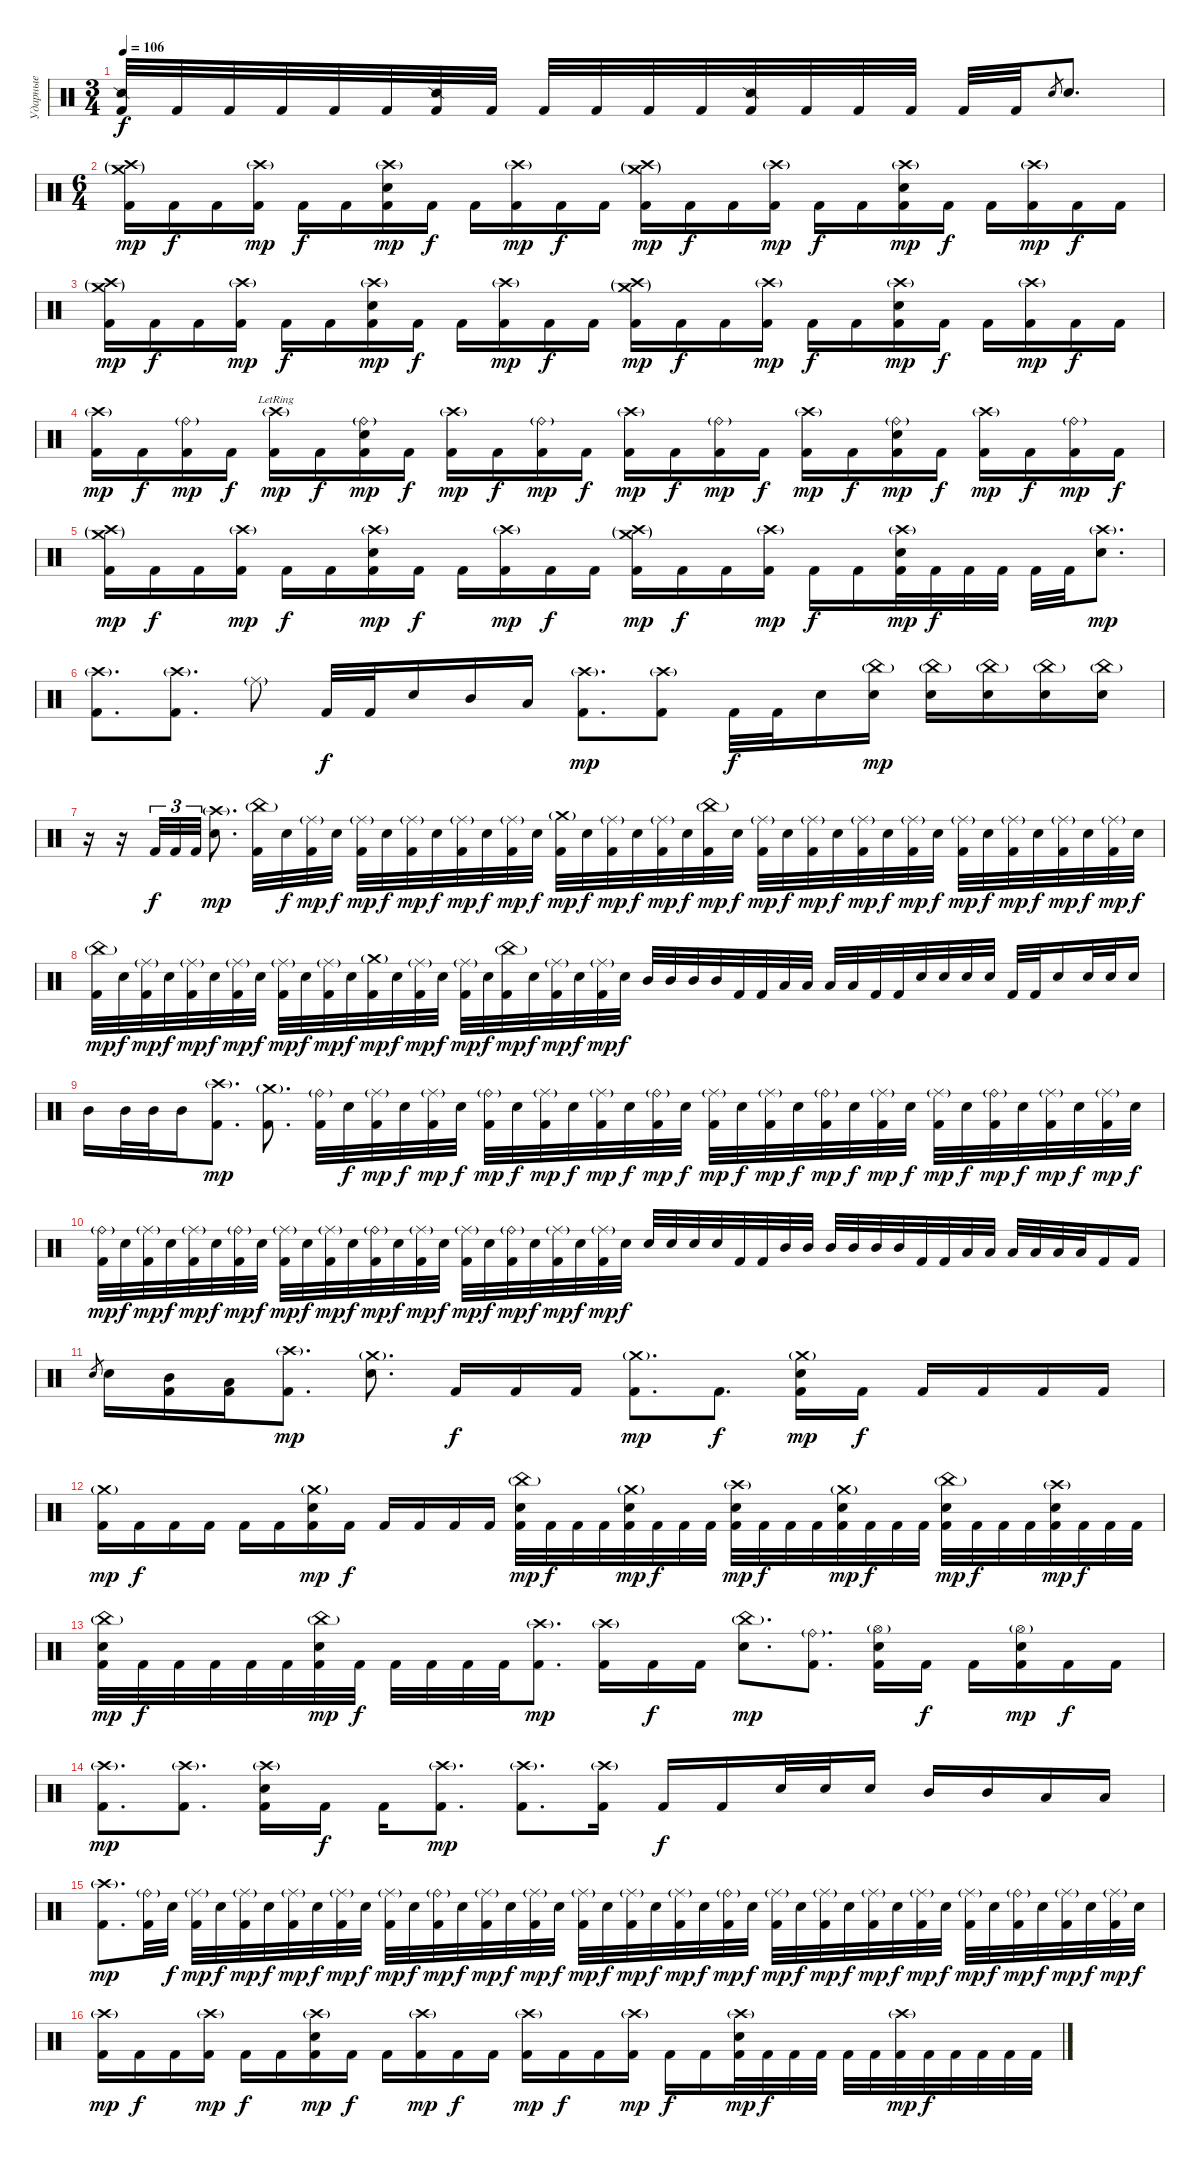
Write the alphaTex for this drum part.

\track ("Ударные" "Ударные") {instrument percussion}
\staff {score}
\articulation defaults
\ts (3 4)
\tempo 106
\clef neutral
\ks c
("Snare (side stick) 2" "Kick (hit) 2").32{dy f} "Kick (hit) 2".32 "Kick (hit) 2".32 "Kick (hit) 2".32 "Kick (hit) 2".32 "Kick (hit) 2".32 ("Snare (side stick) 2" "Kick (hit) 2").32 "Kick (hit) 2".32 "Kick (hit) 2".32 "Kick (hit) 2".32 "Kick (hit) 2".32 "Kick (hit) 2".32 ("Snare (side stick) 2" "Kick (hit) 2").32 "Kick (hit) 2".32 "Kick (hit) 2".32 "Kick (hit) 2".32 "Kick (hit) 2".32 "Kick (hit) 2".32 "Electric Snare (hit)".8{gr} "Electric Snare (hit)".8{d} |
\ts (6 4)
("Crash high (hit)"{g} "Crash medium (hit)"{g} "Kick (hit) 2").16{dy mp} "Kick (hit) 2".16{dy f} "Kick (hit) 2".16 ("Crash high (hit)"{g} "Kick (hit) 2").16{dy mp} "Kick (hit) 2".16{dy f} "Kick (hit) 2".16 ("Crash high (hit)"{g} "Electric Snare (hit)" "Kick (hit) 2").16{dy mp} "Kick (hit) 2".16{dy f} "Kick (hit) 2".16 ("Crash high (hit)"{g} "Kick (hit) 2").16{dy mp} "Kick (hit) 2".16{dy f} "Kick (hit) 2".16 ("Crash high (hit)"{g} "Crash medium (hit)"{g} "Kick (hit) 2").16{dy mp} "Kick (hit) 2".16{dy f} "Kick (hit) 2".16 ("Crash high (hit)"{g} "Kick (hit) 2").16{dy mp} "Kick (hit) 2".16{dy f} "Kick (hit) 2".16 ("Crash high (hit)"{g} "Electric Snare (hit)" "Kick (hit) 2").16{dy mp} "Kick (hit) 2".16{dy f} "Kick (hit) 2".16 ("Crash high (hit)"{g} "Kick (hit) 2").16{dy mp} "Kick (hit) 2".16{dy f} "Kick (hit) 2".16 |
("Crash high (hit)"{g} "Crash medium (hit)"{g} "Kick (hit) 2").16{dy mp} "Kick (hit) 2".16{dy f} "Kick (hit) 2".16 ("Crash high (hit)"{g} "Kick (hit) 2").16{dy mp} "Kick (hit) 2".16{dy f} "Kick (hit) 2".16 ("Crash high (hit)"{g} "Electric Snare (hit)" "Kick (hit) 2").16{dy mp} "Kick (hit) 2".16{dy f} "Kick (hit) 2".16 ("Crash high (hit)"{g} "Kick (hit) 2").16{dy mp} "Kick (hit) 2".16{dy f} "Kick (hit) 2".16 ("Crash high (hit)"{g} "Crash medium (hit)"{g} "Kick (hit) 2").16{dy mp} "Kick (hit) 2".16{dy f} "Kick (hit) 2".16 ("Crash high (hit)"{g} "Kick (hit) 2").16{dy mp} "Kick (hit) 2".16{dy f} "Kick (hit) 2".16 ("Crash high (hit)"{g} "Electric Snare (hit)" "Kick (hit) 2").16{dy mp} "Kick (hit) 2".16{dy f} "Kick (hit) 2".16 ("Crash high (hit)"{g} "Kick (hit) 2").16{dy mp} "Kick (hit) 2".16{dy f} "Kick (hit) 2".16 |
("Crash high (hit)"{g} "Kick (hit) 2").16{dy mp} "Kick (hit) 2".16{dy f} ("Ride (bell)"{g} "Kick (hit) 2").16{dy mp} "Kick (hit) 2".16{dy f} ("Crash high (hit)"{g lr} "Kick (hit) 2").16{dy mp} "Kick (hit) 2".16{dy f} ("Ride (bell)"{g} "Electric Snare (hit)" "Kick (hit) 2").16{dy mp} "Kick (hit) 2".16{dy f} ("Crash high (hit)"{g} "Kick (hit) 2").16{dy mp} "Kick (hit) 2".16{dy f} ("Ride (bell)"{g} "Kick (hit) 2").16{dy mp} "Kick (hit) 2".16{dy f} ("Crash high (hit)"{g} "Kick (hit) 2").16{dy mp} "Kick (hit) 2".16{dy f} ("Ride (bell)"{g} "Kick (hit) 2").16{dy mp} "Kick (hit) 2".16{dy f} ("Crash high (hit)"{g} "Kick (hit) 2").16{dy mp} "Kick (hit) 2".16{dy f} ("Ride (bell)"{g} "Electric Snare (hit)" "Kick (hit) 2").16{dy mp} "Kick (hit) 2".16{dy f} ("Crash high (hit)"{g} "Kick (hit) 2").16{dy mp} "Kick (hit) 2".16{dy f} ("Ride (bell)"{g} "Kick (hit) 2").16{dy mp} "Kick (hit) 2".16{dy f} |
("Crash high (hit)"{g} "Crash medium (hit)"{g} "Kick (hit) 2").16{dy mp} "Kick (hit) 2".16{dy f} "Kick (hit) 2".16 ("Crash high (hit)"{g} "Kick (hit) 2").16{dy mp} "Kick (hit) 2".16{dy f} "Kick (hit) 2".16 ("Crash high (hit)"{g} "Electric Snare (hit)" "Kick (hit) 2").16{dy mp} "Kick (hit) 2".16{dy f} "Kick (hit) 2".16 ("Crash high (hit)"{g} "Kick (hit) 2").16{dy mp} "Kick (hit) 2".16{dy f} "Kick (hit) 2".16 ("Crash high (hit)"{g} "Crash medium (hit)"{g} "Kick (hit) 2").16{dy mp} "Kick (hit) 2".16{dy f} "Kick (hit) 2".16 ("Crash high (hit)"{g} "Kick (hit) 2").16{dy mp} "Kick (hit) 2".16{dy f} "Kick (hit) 2".16 ("Crash high (hit)"{g} "Electric Snare (hit)" "Kick (hit) 2").32{dy mp} "Kick (hit) 2".32{dy f} "Kick (hit) 2".32 "Kick (hit) 2".32 "Kick (hit) 2".32 "Kick (hit) 2".32 ("Crash high (hit)"{g} "Electric Snare (hit)").8{d dy mp} |
("Crash high (hit)"{g} "Kick (hit) 2").8{d} ("Crash high (hit)"{g} "Kick (hit) 2").8{d} "Ride (middle)"{g}.8 "Kick (hit) 2".32{dy f} "Kick (hit) 2".32 "Electric Snare (hit)".16 "Mid Tom (hit)".16 "Low Tom (hit)".16 ("Crash high (hit)"{g} "Kick (hit) 2").8{d dy mp} ("Crash high (hit)"{g} "Kick (hit) 2").8 "Kick (hit) 2".32{dy f} "Kick (hit) 2".32 "Electric Snare (hit)".16 ("China (hit)"{g} "Electric Snare (hit)").16{dy mp} ("China (hit)"{g} "Electric Snare (hit)").16 ("China (hit)"{g} "Electric Snare (hit)").16 ("China (hit)"{g} "Electric Snare (hit)").16 ("China (hit)"{g} "Electric Snare (hit)").16 |
r.16 r.16 "Kick (hit) 2".32{tu (3 2) dy f} "Kick (hit) 2".32{tu (3 2)} "Kick (hit) 2".32{tu (3 2)} ("Crash high (hit)"{g} "Electric Snare (hit)").8{d dy mp} ("China (hit)"{g} "Kick (hit) 2").32 "Electric Snare (hit)".32{dy f} ("Ride (middle)"{g} "Kick (hit) 2").32{dy mp} "Electric Snare (hit)".32{dy f} ("Ride (middle)"{g} "Kick (hit) 2").32{dy mp} "Electric Snare (hit)".32{dy f} ("Ride (middle)"{g} "Kick (hit) 2").32{dy mp} "Electric Snare (hit)".32{dy f} ("Ride (middle)"{g} "Kick (hit) 2").32{dy mp} "Electric Snare (hit)".32{dy f} ("Ride (middle)"{g} "Kick (hit) 2").32{dy mp} "Electric Snare (hit)".32{dy f} ("Crash medium (hit)"{g} "Kick (hit) 2").32{dy mp} "Electric Snare (hit)".32{dy f} ("Ride (middle)"{g} "Kick (hit) 2").32{dy mp} "Electric Snare (hit)".32{dy f} ("Ride (middle)"{g} "Kick (hit) 2").32{dy mp} "Electric Snare (hit)".32{dy f} ("China (hit)"{g} "Kick (hit) 2").32{dy mp} "Electric Snare (hit)".32{dy f} ("Ride (middle)"{g} "Kick (hit) 2").32{dy mp} "Electric Snare (hit)".32{dy f} ("Ride (middle)"{g} "Kick (hit) 2").32{dy mp} "Electric Snare (hit)".32{dy f} ("Ride (middle)"{g} "Kick (hit) 2").32{dy mp} "Electric Snare (hit)".32{dy f} ("Ride (middle)"{g} "Kick (hit) 2").32{dy mp} "Electric Snare (hit)".32{dy f} ("Ride (middle)"{g} "Kick (hit) 2").32{dy mp} "Electric Snare (hit)".32{dy f} ("Ride (middle)"{g} "Kick (hit) 2").32{dy mp} "Electric Snare (hit)".32{dy f} ("Ride (middle)"{g} "Kick (hit) 2").32{dy mp} "Electric Snare (hit)".32{dy f} ("Ride (middle)"{g} "Kick (hit) 2").32{dy mp} "Electric Snare (hit)".32{dy f} |
("China (hit)"{g} "Kick (hit) 2").32{dy mp} "Electric Snare (hit)".32{dy f} ("Ride (middle)"{g} "Kick (hit) 2").32{dy mp} "Electric Snare (hit)".32{dy f} ("Ride (middle)"{g} "Kick (hit) 2").32{dy mp} "Electric Snare (hit)".32{dy f} ("Ride (middle)"{g} "Kick (hit) 2").32{dy mp} "Electric Snare (hit)".32{dy f} ("Ride (middle)"{g} "Kick (hit) 2").32{dy mp} "Electric Snare (hit)".32{dy f} ("Ride (middle)"{g} "Kick (hit) 2").32{dy mp} "Electric Snare (hit)".32{dy f} ("Crash medium (hit)"{g} "Kick (hit) 2").32{dy mp} "Electric Snare (hit)".32{dy f} ("Ride (middle)"{g} "Kick (hit) 2").32{dy mp} "Electric Snare (hit)".32{dy f} ("Ride (middle)"{g} "Kick (hit) 2").32{dy mp} "Electric Snare (hit)".32{dy f} ("China (hit)"{g} "Kick (hit) 2").32{dy mp} "Electric Snare (hit)".32{dy f} ("Ride (middle)"{g} "Kick (hit) 2").32{dy mp} "Electric Snare (hit)".32{dy f} ("Ride (middle)"{g} "Kick (hit) 2").32{dy mp} "Electric Snare (hit)".32{dy f} "Mid Tom (hit)".32 "Mid Tom (hit)".32 "Mid Tom (hit)".32 "Mid Tom (hit)".32 "Kick (hit) 2".32 "Kick (hit) 2".32 "Low Tom (hit)".32 "Low Tom (hit)".32 "Low Tom (hit)".32 "Low Tom (hit)".32 "Kick (hit) 2".32 "Kick (hit) 2".32 "Electric Snare (hit)".32 "Electric Snare (hit)".32 "Electric Snare (hit)".32 "Electric Snare (hit)".32 "Kick (hit) 2".32 "Kick (hit) 2".32 "Electric Snare (hit)".16 "Electric Snare (hit)".32 "Electric Snare (hit)".32 "Electric Snare (hit)".16 |
"Mid Tom (hit)".16 "Mid Tom (hit)".32 "Mid Tom (hit)".32 "Mid Tom (hit)".16 ("Crash high (hit)"{g} "Kick (hit) 2").8{d dy mp} ("Crash medium (hit)"{g} "Kick (hit) 2").8{d} ("Ride (bell)"{g} "Kick (hit) 2").32 "Electric Snare (hit)".32{dy f} ("Ride (middle)"{g} "Kick (hit) 2").32{dy mp} "Electric Snare (hit)".32{dy f} ("Ride (middle)"{g} "Kick (hit) 2").32{dy mp} "Electric Snare (hit)".32{dy f} ("Ride (bell)"{g} "Kick (hit) 2").32{dy mp} "Electric Snare (hit)".32{dy f} ("Ride (middle)"{g} "Kick (hit) 2").32{dy mp} "Electric Snare (hit)".32{dy f} ("Ride (middle)"{g} "Kick (hit) 2").32{dy mp} "Electric Snare (hit)".32{dy f} ("Ride (bell)"{g} "Kick (hit) 2").32{dy mp} "Electric Snare (hit)".32{dy f} ("Ride (middle)"{g} "Kick (hit) 2").32{dy mp} "Electric Snare (hit)".32{dy f} ("Ride (middle)"{g} "Kick (hit) 2").32{dy mp} "Electric Snare (hit)".32{dy f} ("Ride (bell)"{g} "Kick (hit) 2").32{dy mp} "Electric Snare (hit)".32{dy f} ("Ride (middle)"{g} "Kick (hit) 2").32{dy mp} "Electric Snare (hit)".32{dy f} ("Ride (middle)"{g} "Kick (hit) 2").32{dy mp} "Electric Snare (hit)".32{dy f} ("Ride (bell)"{g} "Kick (hit) 2").32{dy mp} "Electric Snare (hit)".32{dy f} ("Ride (middle)"{g} "Kick (hit) 2").32{dy mp} "Electric Snare (hit)".32{dy f} ("Ride (middle)"{g} "Kick (hit) 2").32{dy mp} "Electric Snare (hit)".32{dy f} |
("Ride (bell)"{g} "Kick (hit) 2").32{dy mp} "Electric Snare (hit)".32{dy f} ("Ride (middle)"{g} "Kick (hit) 2").32{dy mp} "Electric Snare (hit)".32{dy f} ("Ride (middle)"{g} "Kick (hit) 2").32{dy mp} "Electric Snare (hit)".32{dy f} ("Ride (bell)"{g} "Kick (hit) 2").32{dy mp} "Electric Snare (hit)".32{dy f} ("Ride (middle)"{g} "Kick (hit) 2").32{dy mp} "Electric Snare (hit)".32{dy f} ("Ride (middle)"{g} "Kick (hit) 2").32{dy mp} "Electric Snare (hit)".32{dy f} ("Ride (bell)"{g} "Kick (hit) 2").32{dy mp} "Electric Snare (hit)".32{dy f} ("Ride (middle)"{g} "Kick (hit) 2").32{dy mp} "Electric Snare (hit)".32{dy f} ("Ride (middle)"{g} "Kick (hit) 2").32{dy mp} "Electric Snare (hit)".32{dy f} ("Ride (bell)"{g} "Kick (hit) 2").32{dy mp} "Electric Snare (hit)".32{dy f} ("Ride (middle)"{g} "Kick (hit) 2").32{dy mp} "Electric Snare (hit)".32{dy f} ("Ride (middle)"{g} "Kick (hit) 2").32{dy mp} "Electric Snare (hit)".32{dy f} "Electric Snare (hit)".32 "Electric Snare (hit)".32 "Electric Snare (hit)".32 "Electric Snare (hit)".32 "Kick (hit) 2".32 "Kick (hit) 2".32 "Mid Tom (hit)".32 "Mid Tom (hit)".32 "Mid Tom (hit)".32 "Mid Tom (hit)".32 "Mid Tom (hit)".32 "Mid Tom (hit)".32 "Kick (hit) 2".32 "Kick (hit) 2".32 "Low Tom (hit)".32 "Low Tom (hit)".32 "Low Tom (hit)".32 "Low Tom (hit)".32 "Low Tom (hit)".32 "Low Tom (hit)".32 "Kick (hit) 2".16 "Kick (hit) 2".16 |
"Electric Snare (hit)".8{gr} "Electric Snare (hit)".16 ("Mid Tom (hit)" "Kick (hit) 2").16 ("Low Tom (hit)" "Kick (hit) 2").16 ("Crash high (hit)"{g} "Kick (hit) 2").8{d dy mp} ("Crash medium (hit)"{g} "Electric Snare (hit)").8{d} "Kick (hit) 2".16{dy f} "Kick (hit) 2".16 "Kick (hit) 2".16 ("Crash medium (hit)"{g} "Kick (hit) 2").8{d dy mp} "Kick (hit) 2".8{d dy f} ("Crash medium (hit)"{g} "Electric Snare (hit)" "Kick (hit) 2").16{dy mp} "Kick (hit) 2".16{dy f} "Kick (hit) 2".16 "Kick (hit) 2".16 "Kick (hit) 2".16 "Kick (hit) 2".16 |
("Crash medium (hit)"{g} "Kick (hit) 2").16{dy mp} "Kick (hit) 2".16{dy f} "Kick (hit) 2".16 "Kick (hit) 2".16 "Kick (hit) 2".16 "Kick (hit) 2".16 ("Crash medium (hit)"{g} "Electric Snare (hit)" "Kick (hit) 2").16{dy mp} "Kick (hit) 2".16{dy f} "Kick (hit) 2".16 "Kick (hit) 2".16 "Kick (hit) 2".16 "Kick (hit) 2".16 ("China (hit)"{g} "Electric Snare (hit)" "Kick (hit) 2").32{dy mp} "Kick (hit) 2".32{dy f} "Kick (hit) 2".32 "Kick (hit) 2".32 ("Crash medium (hit)"{g} "Electric Snare (hit)" "Kick (hit) 2").32{dy mp} "Kick (hit) 2".32{dy f} "Kick (hit) 2".32 "Kick (hit) 2".32 ("Crash high (hit)"{g} "Electric Snare (hit)" "Kick (hit) 2").32{dy mp} "Kick (hit) 2".32{dy f} "Kick (hit) 2".32 "Kick (hit) 2".32 ("Crash medium (hit)"{g} "Electric Snare (hit)" "Kick (hit) 2").32{dy mp} "Kick (hit) 2".32{dy f} "Kick (hit) 2".32 "Kick (hit) 2".32 ("China (hit)"{g} "Electric Snare (hit)" "Kick (hit) 2").32{dy mp} "Kick (hit) 2".32{dy f} "Kick (hit) 2".32 "Kick (hit) 2".32 ("Crash high (hit)"{g} "Electric Snare (hit)" "Kick (hit) 2").32{dy mp} "Kick (hit) 2".32{dy f} "Kick (hit) 2".32 "Kick (hit) 2".32 |
("China (hit)"{g} "Electric Snare (hit)" "Kick (hit) 2").32{dy mp} "Kick (hit) 2".32{dy f} "Kick (hit) 2".32 "Kick (hit) 2".32 "Kick (hit) 2".32 "Kick (hit) 2".32 ("China (hit)"{g} "Electric Snare (hit)" "Kick (hit) 2").32{dy mp} "Kick (hit) 2".32{dy f} "Kick (hit) 2".32 "Kick (hit) 2".32 "Kick (hit) 2".32 "Kick (hit) 2".32 ("Crash high (hit)"{g} "Kick (hit) 2").8{d dy mp} ("Crash high (hit)"{g} "Kick (hit) 2").16 "Kick (hit) 2".16{dy f} "Kick (hit) 2".16 ("China (hit)"{g} "Electric Snare (hit)").8{d dy mp} ("Ride (bell)"{g} "Kick (hit) 2").8{d} ("Hi-Hat (open)"{g} "Electric Snare (hit)" "Kick (hit) 2").16 "Kick (hit) 2".16{dy f} "Kick (hit) 2".16 ("Hi-Hat (open)"{g} "Electric Snare (hit)" "Kick (hit) 2").16{dy mp} "Kick (hit) 2".16{dy f} "Kick (hit) 2".16 |
("Crash high (hit)"{g} "Kick (hit) 2").8{d dy mp} ("Crash high (hit)"{g} "Kick (hit) 2").8{d} ("Crash high (hit)"{g} "Electric Snare (hit)" "Kick (hit) 2").16 "Kick (hit) 2".16{dy f} "Kick (hit) 2".16 ("Crash high (hit)"{g} "Kick (hit) 2").8{d dy mp} ("Crash high (hit)"{g} "Kick (hit) 2").8{d} ("Crash high (hit)"{g} "Kick (hit) 2").16 "Kick (hit) 2".16{dy f} "Kick (hit) 2".16 "Electric Snare (hit)".32 "Electric Snare (hit)".32 "Electric Snare (hit)".16 "Mid Tom (hit)".16 "Mid Tom (hit)".16 "Low Tom (hit)".16 "Low Tom (hit)".16 |
("Crash high (hit)"{g} "Kick (hit) 2").8{d dy mp} ("Ride (bell)"{g} "Kick (hit) 2").32 "Electric Snare (hit)".32{dy f} ("Ride (middle)"{g} "Kick (hit) 2").32{dy mp} "Electric Snare (hit)".32{dy f} ("Ride (middle)"{g} "Kick (hit) 2").32{dy mp} "Electric Snare (hit)".32{dy f} ("Ride (middle)"{g} "Kick (hit) 2").32{dy mp} "Electric Snare (hit)".32{dy f} ("Ride (middle)"{g} "Kick (hit) 2").32{dy mp} "Electric Snare (hit)".32{dy f} ("Ride (middle)"{g} "Kick (hit) 2").32{dy mp} "Electric Snare (hit)".32{dy f} ("Ride (bell)"{g} "Kick (hit) 2").32{dy mp} "Electric Snare (hit)".32{dy f} ("Ride (middle)"{g} "Kick (hit) 2").32{dy mp} "Electric Snare (hit)".32{dy f} ("Ride (middle)"{g} "Kick (hit) 2").32{dy mp} "Electric Snare (hit)".32{dy f} ("Ride (middle)"{g} "Kick (hit) 2").32{dy mp} "Electric Snare (hit)".32{dy f} ("Ride (middle)"{g} "Kick (hit) 2").32{dy mp} "Electric Snare (hit)".32{dy f} ("Ride (middle)"{g} "Kick (hit) 2").32{dy mp} "Electric Snare (hit)".32{dy f} ("Ride (bell)"{g} "Kick (hit) 2").32{dy mp} "Electric Snare (hit)".32{dy f} ("Ride (middle)"{g} "Kick (hit) 2").32{dy mp} "Electric Snare (hit)".32{dy f} ("Ride (middle)"{g} "Kick (hit) 2").32{dy mp} "Electric Snare (hit)".32{dy f} ("Ride (middle)"{g} "Kick (hit) 2").32{dy mp} "Electric Snare (hit)".32{dy f} ("Ride (middle)"{g} "Kick (hit) 2").32{dy mp} "Electric Snare (hit)".32{dy f} ("Ride (middle)"{g} "Kick (hit) 2").32{dy mp} "Electric Snare (hit)".32{dy f} ("Ride (bell)"{g} "Kick (hit) 2").32{dy mp} "Electric Snare (hit)".32{dy f} ("Ride (middle)"{g} "Kick (hit) 2").32{dy mp} "Electric Snare (hit)".32{dy f} ("Ride (middle)"{g} "Kick (hit) 2").32{dy mp} "Electric Snare (hit)".32{dy f} |
("Crash high (hit)"{g} "Kick (hit) 2").16{dy mp} "Kick (hit) 2".16{dy f} "Kick (hit) 2".16 ("Crash high (hit)"{g} "Kick (hit) 2").16{dy mp} "Kick (hit) 2".16{dy f} "Kick (hit) 2".16 ("Crash high (hit)"{g} "Electric Snare (hit)" "Kick (hit) 2").16{dy mp} "Kick (hit) 2".16{dy f} "Kick (hit) 2".16 ("Crash high (hit)"{g} "Kick (hit) 2").16{dy mp} "Kick (hit) 2".16{dy f} "Kick (hit) 2".16 ("Crash high (hit)"{g} "Kick (hit) 2").16{dy mp} "Kick (hit) 2".16{dy f} "Kick (hit) 2".16 ("Crash high (hit)"{g} "Kick (hit) 2").16{dy mp} "Kick (hit) 2".16{dy f} "Kick (hit) 2".16 ("Crash high (hit)"{g} "Electric Snare (hit)" "Kick (hit) 2").32{dy mp} "Kick (hit) 2".32{dy f} "Kick (hit) 2".32 "Kick (hit) 2".32 "Kick (hit) 2".32 "Kick (hit) 2".32 ("Crash high (hit)"{g} "Kick (hit) 2").32{dy mp} "Kick (hit) 2".32{dy f} "Kick (hit) 2".32 "Kick (hit) 2".32 "Kick (hit) 2".32 "Kick (hit) 2".32
